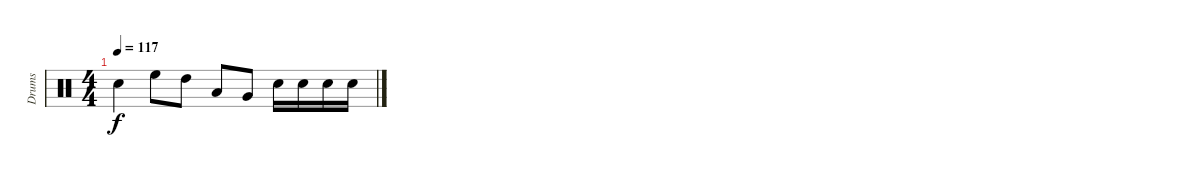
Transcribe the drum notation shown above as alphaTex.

\track ("Drums" "Drums") {instrument percussion}
\staff {score}
\articulation defaults
\ts (4 4)
\tempo 117
\clef neutral
\ks c "Snare (hit) 2".4{dy f} "High Floor Tom (hit)".8 "High Tom (hit)".8 "Low Tom (hit)".8 "Very Low Tom (hit)".8 "Snare (hit) 2".16 "Snare (hit) 2".16 "Snare (hit) 2".16 "Snare (hit) 2".16
